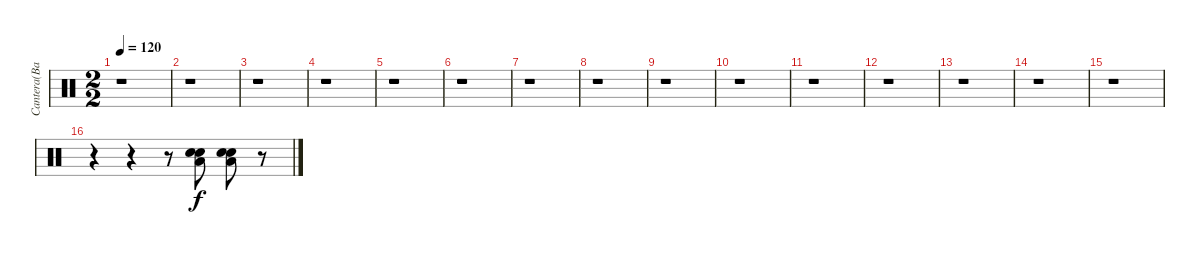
\track ("Cantera(Bateria)" "Cantera(Ba") {instrument percussion}
\staff {score}
\articulation defaults
\ts (2 2)
\tempo 120
\clef neutral
\ks c
r.1{dy f} |
r.1 |
r.1 |
r.1 |
r.1 |
r.1 |
r.1 |
r.1 |
r.1 |
r.1 |
r.1 |
r.1 |
r.1 |
r.1 |
r.1 |
r.4 r.4 r.8 ("Low Floor Tom (hit)" "Electric Snare (hit)" "Electric Snare (hit)").8 ("Low Floor Tom (hit)" "Electric Snare (hit)" "Electric Snare (hit)").8 r.8
